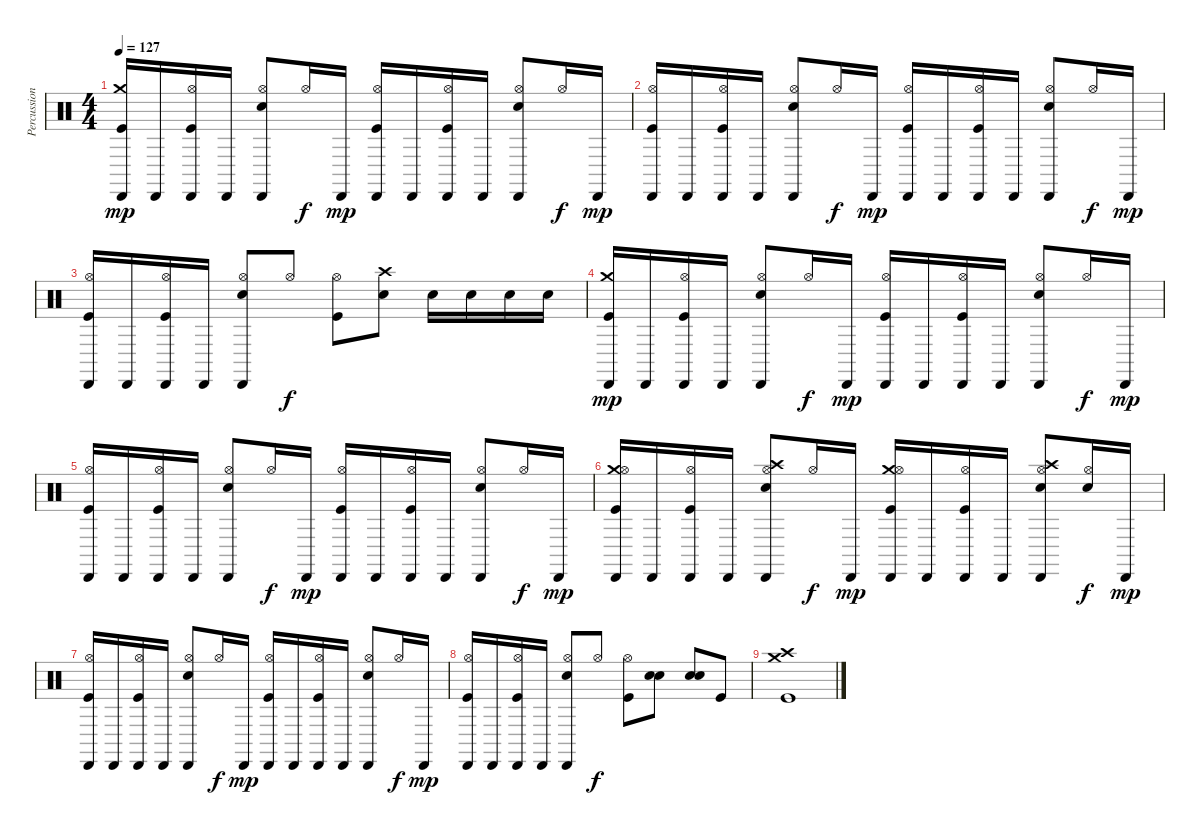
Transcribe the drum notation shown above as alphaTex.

\track ("Percussion" "Percussion") {instrument percussion}
\staff {score}
\articulation defaults
\ts (4 4)
\tempo 127
\clef neutral
\ks c
("Crash medium (hit)" "Kick (hit)" "Cabasa (hit)").16{dy mp} "Cabasa (hit)".16 ("Hi-Hat (open)" "Kick (hit)" "Cabasa (hit)").16 "Cabasa (hit)".16 ("Hi-Hat (open)" "Snare (hit) 2" "Cabasa (hit)").8 "Hi-Hat (open)".16{dy f} "Cabasa (hit)".16{dy mp} ("Hi-Hat (open)" "Kick (hit)" "Cabasa (hit)").16 "Cabasa (hit)".16 ("Hi-Hat (open)" "Kick (hit)" "Cabasa (hit)").16 "Cabasa (hit)".16 ("Hi-Hat (open)" "Snare (hit) 2" "Cabasa (hit)").8 "Hi-Hat (open)".16{dy f} "Cabasa (hit)".16{dy mp} |
("Hi-Hat (open)" "Kick (hit)" "Cabasa (hit)").16 "Cabasa (hit)".16 ("Hi-Hat (open)" "Kick (hit)" "Cabasa (hit)").16 "Cabasa (hit)".16 ("Hi-Hat (open)" "Snare (hit) 2" "Cabasa (hit)").8 "Hi-Hat (open)".16{dy f} "Cabasa (hit)".16{dy mp} ("Hi-Hat (open)" "Kick (hit)" "Cabasa (hit)").16 "Cabasa (hit)".16 ("Hi-Hat (open)" "Kick (hit)" "Cabasa (hit)").16 "Cabasa (hit)".16 ("Hi-Hat (open)" "Snare (hit) 2" "Cabasa (hit)").8 "Hi-Hat (open)".16{dy f} "Cabasa (hit)".16{dy mp} |
("Hi-Hat (open)" "Kick (hit)" "Cabasa (hit)").16 "Cabasa (hit)".16 ("Hi-Hat (open)" "Kick (hit)" "Cabasa (hit)").16 "Cabasa (hit)".16 ("Hi-Hat (open)" "Snare (hit) 2" "Cabasa (hit)").8 "Hi-Hat (open)".8{dy f} ("Hi-Hat (open)" "Kick (hit)").8 ("Crash high (hit)" "Snare (hit) 2").8 "Snare (hit) 2".16 "Snare (hit) 2".16 "Snare (hit) 2".16 "Snare (hit) 2".16 |
("Crash medium (hit)" "Kick (hit)" "Cabasa (hit)").16{dy mp} "Cabasa (hit)".16 ("Hi-Hat (open)" "Kick (hit)" "Cabasa (hit)").16 "Cabasa (hit)".16 ("Hi-Hat (open)" "Snare (hit) 2" "Cabasa (hit)").8 "Hi-Hat (open)".16{dy f} "Cabasa (hit)".16{dy mp} ("Hi-Hat (open)" "Kick (hit)" "Cabasa (hit)").16 "Cabasa (hit)".16 ("Hi-Hat (open)" "Kick (hit)" "Cabasa (hit)").16 "Cabasa (hit)".16 ("Hi-Hat (open)" "Snare (hit) 2" "Cabasa (hit)").8 "Hi-Hat (open)".16{dy f} "Cabasa (hit)".16{dy mp} |
("Hi-Hat (open)" "Kick (hit)" "Cabasa (hit)").16 "Cabasa (hit)".16 ("Hi-Hat (open)" "Kick (hit)" "Cabasa (hit)").16 "Cabasa (hit)".16 ("Hi-Hat (open)" "Snare (hit) 2" "Cabasa (hit)").8 "Hi-Hat (open)".16{dy f} "Cabasa (hit)".16{dy mp} ("Hi-Hat (open)" "Kick (hit)" "Cabasa (hit)").16 "Cabasa (hit)".16 ("Hi-Hat (open)" "Kick (hit)" "Cabasa (hit)").16 "Cabasa (hit)".16 ("Hi-Hat (open)" "Snare (hit) 2" "Cabasa (hit)").8 "Hi-Hat (open)".16{dy f} "Cabasa (hit)".16{dy mp} |
("Crash medium (hit)" "Hi-Hat (open)" "Kick (hit)" "Cabasa (hit)").16 "Cabasa (hit)".16 ("Hi-Hat (open)" "Kick (hit)" "Cabasa (hit)").16 "Cabasa (hit)".16 ("Crash high (hit)" "Hi-Hat (open)" "Snare (hit) 2" "Cabasa (hit)").8 "Hi-Hat (open)".16{dy f} "Cabasa (hit)".16{dy mp} ("Crash medium (hit)" "Hi-Hat (open)" "Kick (hit)" "Cabasa (hit)").16 "Cabasa (hit)".16 ("Hi-Hat (open)" "Kick (hit)" "Cabasa (hit)").16 "Cabasa (hit)".16 ("Crash high (hit)" "Hi-Hat (open)" "Snare (hit) 2" "Cabasa (hit)").8 ("Hi-Hat (open)" "Snare (hit) 2").16{dy f} "Cabasa (hit)".16{dy mp} |
("Hi-Hat (open)" "Kick (hit)" "Cabasa (hit)").16 "Cabasa (hit)".16 ("Hi-Hat (open)" "Kick (hit)" "Cabasa (hit)").16 "Cabasa (hit)".16 ("Hi-Hat (open)" "Snare (hit) 2" "Cabasa (hit)").8 "Hi-Hat (open)".16{dy f} "Cabasa (hit)".16{dy mp} ("Hi-Hat (open)" "Kick (hit)" "Cabasa (hit)").16 "Cabasa (hit)".16 ("Hi-Hat (open)" "Kick (hit)" "Cabasa (hit)").16 "Cabasa (hit)".16 ("Hi-Hat (open)" "Snare (hit) 2" "Cabasa (hit)").8 "Hi-Hat (open)".16{dy f} "Cabasa (hit)".16{dy mp} |
("Hi-Hat (open)" "Kick (hit)" "Cabasa (hit)").16 "Cabasa (hit)".16 ("Hi-Hat (open)" "Kick (hit)" "Cabasa (hit)").16 "Cabasa (hit)".16 ("Hi-Hat (open)" "Snare (hit) 2" "Cabasa (hit)").8 "Hi-Hat (open)".8{dy f} ("Hi-Hat (open)" "Kick (hit)").8 ("Snare (hit) 2" "Snare (hit) 2").8 ("Snare (hit) 2" "Snare (hit) 2").8 "Kick (hit)".8 |
("Crash high (hit)" "Crash medium (hit)" "Kick (hit)").1
